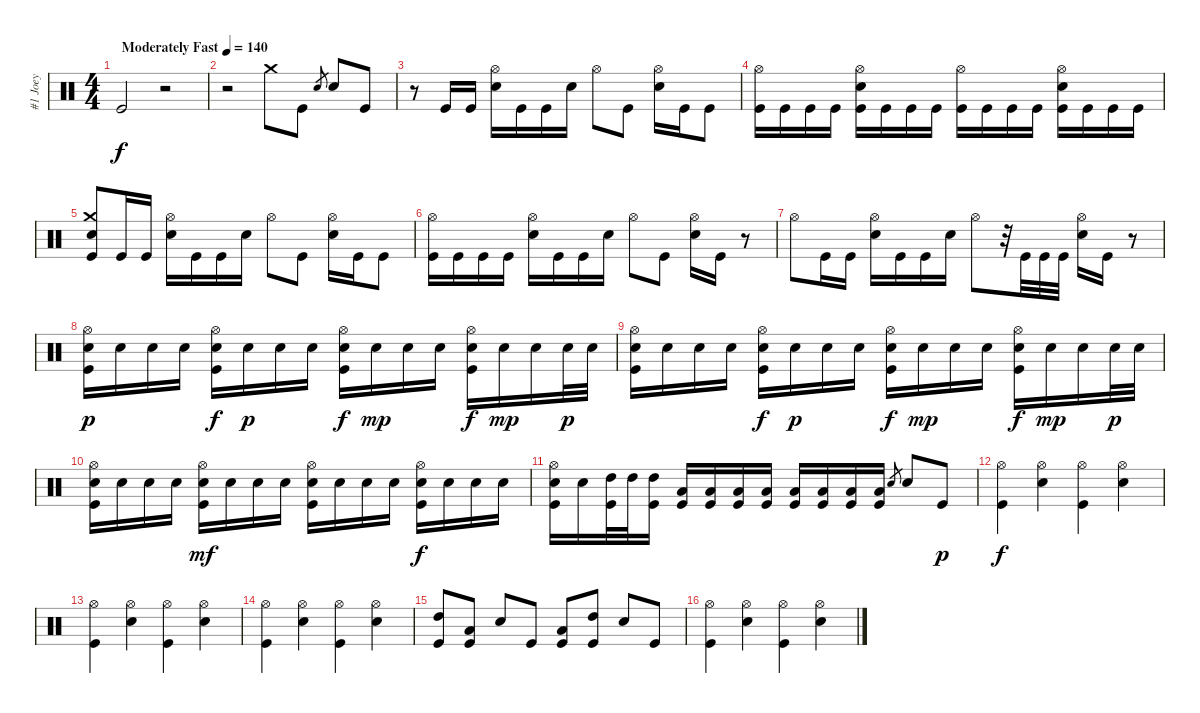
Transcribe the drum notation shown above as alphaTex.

\track ("#1 Joey" "#1 Joey") {solo instrument percussion}
\staff {score}
\articulation defaults
\ts (4 4)
\tempo (140 "Moderately Fast")
\clef neutral
\ks c "Kick (hit)".2{dy f}
r.2 |
r.2 "Crash medium (hit)".8 "Kick (hit)".8 "Electric Snare (hit)".8{gr} "Electric Snare (hit)".8 "Kick (hit)".8 |
r.8 "Kick (hit)".16 "Kick (hit)".16 ("Hi-Hat (open)" "Electric Snare (hit)").16 "Kick (hit)".16 "Kick (hit)".16 "Electric Snare (hit)".16 "Hi-Hat (open)".8 "Kick (hit)".8 ("Hi-Hat (open)" "Electric Snare (hit)").16 "Kick (hit)".16 "Kick (hit)".8 |
("Hi-Hat (open)" "Kick (hit)").16 "Kick (hit)".16 "Kick (hit)".16 "Kick (hit)".16 ("Hi-Hat (open)" "Electric Snare (hit)" "Kick (hit)").16 "Kick (hit)".16 "Kick (hit)".16 "Kick (hit)".16 ("Hi-Hat (open)" "Kick (hit)").16 "Kick (hit)".16 "Kick (hit)".16 "Kick (hit)".16 ("Hi-Hat (open)" "Electric Snare (hit)" "Kick (hit)").16 "Kick (hit)".16 "Kick (hit)".16 "Kick (hit)".16 |
("Crash medium (hit)" "Electric Snare (hit)" "Kick (hit)").8 "Kick (hit)".16 "Kick (hit)".16 ("Hi-Hat (open)" "Electric Snare (hit)").16 "Kick (hit)".16 "Kick (hit)".16 "Electric Snare (hit)".16 "Hi-Hat (open)".8 "Kick (hit)".8 ("Hi-Hat (open)" "Electric Snare (hit)").16 "Kick (hit)".16 "Kick (hit)".8 |
("Hi-Hat (open)" "Kick (hit)").16 "Kick (hit)".16 "Kick (hit)".16 "Kick (hit)".16 ("Hi-Hat (open)" "Electric Snare (hit)").16 "Kick (hit)".16 "Kick (hit)".16 "Electric Snare (hit)".16 "Hi-Hat (open)".8 "Kick (hit)".8 ("Hi-Hat (open)" "Electric Snare (hit)").16 "Kick (hit)".16 r.8 |
"Hi-Hat (open)".8 "Kick (hit)".16 "Kick (hit)".16 ("Hi-Hat (open)" "Electric Snare (hit)").16 "Kick (hit)".16 "Kick (hit)".16 "Electric Snare (hit)".16 "Hi-Hat (open)".8 r.32 "Kick (hit)".32 "Kick (hit)".32 "Kick (hit)".32 ("Hi-Hat (open)" "Electric Snare (hit)").16 "Kick (hit)".16 r.8 |
("Hi-Hat (open)" "Electric Snare (hit)" "Kick (hit)").16{dy p} "Electric Snare (hit)".16 "Electric Snare (hit)".16 "Electric Snare (hit)".16 ("Hi-Hat (open)" "Electric Snare (hit)" "Kick (hit)").16{dy f} "Electric Snare (hit)".16{dy p} "Electric Snare (hit)".16 "Electric Snare (hit)".16 ("Hi-Hat (open)" "Electric Snare (hit)" "Kick (hit)").16{dy f} "Electric Snare (hit)".16{dy mp} "Electric Snare (hit)".16 "Electric Snare (hit)".16 ("Hi-Hat (open)" "Electric Snare (hit)" "Kick (hit)").16{dy f} "Electric Snare (hit)".16{dy mp} "Electric Snare (hit)".16 "Electric Snare (hit)".32{dy p} "Electric Snare (hit)".32 |
("Hi-Hat (open)" "Electric Snare (hit)" "Kick (hit)").16 "Electric Snare (hit)".16 "Electric Snare (hit)".16 "Electric Snare (hit)".16 ("Hi-Hat (open)" "Electric Snare (hit)" "Kick (hit)").16{dy f} "Electric Snare (hit)".16{dy p} "Electric Snare (hit)".16 "Electric Snare (hit)".16 ("Hi-Hat (open)" "Electric Snare (hit)" "Kick (hit)").16{dy f} "Electric Snare (hit)".16{dy mp} "Electric Snare (hit)".16 "Electric Snare (hit)".16 ("Hi-Hat (open)" "Electric Snare (hit)" "Kick (hit)").16{dy f} "Electric Snare (hit)".16{dy mp} "Electric Snare (hit)".16 "Electric Snare (hit)".32{dy p} "Electric Snare (hit)".32 |
("Hi-Hat (open)" "Electric Snare (hit)" "Kick (hit)").16 "Electric Snare (hit)".16 "Electric Snare (hit)".16 "Electric Snare (hit)".16 ("Hi-Hat (open)" "Electric Snare (hit)" "Kick (hit)").16{dy mf} "Electric Snare (hit)".16 "Electric Snare (hit)".16 "Electric Snare (hit)".16 ("Hi-Hat (open)" "Electric Snare (hit)" "Kick (hit)").16 "Electric Snare (hit)".16 "Electric Snare (hit)".16 "Electric Snare (hit)".16 ("Hi-Hat (open)" "Electric Snare (hit)" "Kick (hit)").16{dy f} "Electric Snare (hit)".16 "Electric Snare (hit)".16 "Electric Snare (hit)".16 |
("Hi-Hat (open)" "Electric Snare (hit)" "Kick (hit)").16 "Electric Snare (hit)".16 ("High Tom (hit)" "Kick (hit)").32 "High Tom (hit)".32 ("High Tom (hit)" "Kick (hit)").16 ("Low Tom (hit)" "Kick (hit)").16 ("Low Tom (hit)" "Kick (hit)").16 ("Low Floor Tom (hit)" "Kick (hit)").16 ("Low Floor Tom (hit)" "Kick (hit)").16 ("Low Tom (hit)" "Kick (hit)").16 ("Low Tom (hit)" "Kick (hit)").16 ("Low Floor Tom (hit)" "Kick (hit)").16 ("Low Floor Tom (hit)" "Kick (hit)").16 "Electric Snare (hit)".8{gr} "Electric Snare (hit)".8 "Kick (hit)".8{dy p} |
("Hi-Hat (open)" "Kick (hit)").4{dy f} ("Hi-Hat (open)" "Electric Snare (hit)").4 ("Hi-Hat (open)" "Kick (hit)").4 ("Hi-Hat (open)" "Electric Snare (hit)").4 |
("Hi-Hat (open)" "Kick (hit)").4 ("Hi-Hat (open)" "Electric Snare (hit)").4 ("Hi-Hat (open)" "Kick (hit)").4 ("Hi-Hat (open)" "Electric Snare (hit)").4 |
("Hi-Hat (open)" "Kick (hit)").4 ("Hi-Hat (open)" "Electric Snare (hit)").4 ("Hi-Hat (open)" "Kick (hit)").4 ("Hi-Hat (open)" "Electric Snare (hit)").4 |
("High Tom (hit)" "Kick (hit)").8 ("Low Tom (hit)" "Kick (hit)").8 "Electric Snare (hit)".8 "Kick (hit)".8 ("Low Tom (hit)" "Kick (hit)").8 ("High Tom (hit)" "Kick (hit)").8 "Electric Snare (hit)".8 "Kick (hit)".8 |
("Hi-Hat (open)" "Kick (hit)").4 ("Hi-Hat (open)" "Electric Snare (hit)").4 ("Hi-Hat (open)" "Kick (hit)").4 ("Hi-Hat (open)" "Electric Snare (hit)").4
